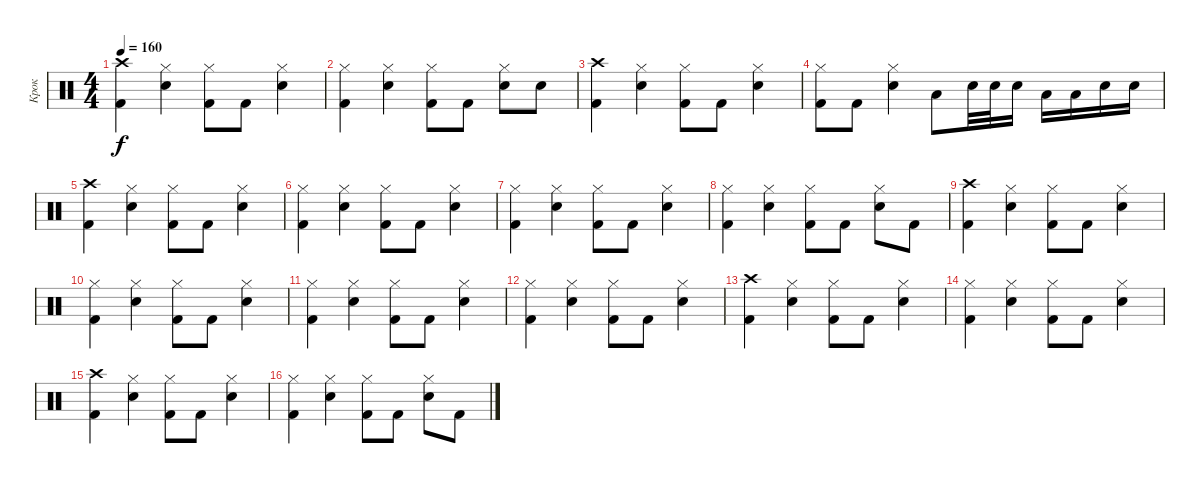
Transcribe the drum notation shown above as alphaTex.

\track ("Крок" "Крок") {instrument percussion}
\staff {score}
\articulation defaults
\ts (4 4)
\tempo 160
\clef neutral
\ks c
("Crash high (hit)" "Kick (hit) 2").4{dy f} ("Hi-Hat (closed)" "Electric Snare (hit)").4 ("Hi-Hat (closed)" "Kick (hit) 2").8 "Kick (hit) 2".8 ("Hi-Hat (closed)" "Electric Snare (hit)").4 |
("Hi-Hat (closed)" "Kick (hit) 2").4 ("Hi-Hat (closed)" "Electric Snare (hit)").4 ("Hi-Hat (closed)" "Kick (hit) 2").8 "Kick (hit) 2".8 ("Hi-Hat (closed)" "Electric Snare (hit)").8 "Electric Snare (hit)".8 |
("Crash high (hit)" "Kick (hit) 2").4 ("Hi-Hat (closed)" "Electric Snare (hit)").4 ("Hi-Hat (closed)" "Kick (hit) 2").8 "Kick (hit) 2".8 ("Hi-Hat (closed)" "Electric Snare (hit)").4 |
("Hi-Hat (closed)" "Kick (hit) 2").8 "Kick (hit) 2".8 ("Hi-Hat (closed)" "Electric Snare (hit)").4 "Low Tom (hit)".8 "Electric Snare (hit)".32 "Electric Snare (hit)".32 "Electric Snare (hit)".16 "Low Tom (hit)".16 "Low Tom (hit)".16 "Electric Snare (hit)".16 "Electric Snare (hit)".16 |
("Crash high (hit)" "Kick (hit) 2").4 ("Hi-Hat (closed)" "Electric Snare (hit)").4 ("Hi-Hat (closed)" "Kick (hit) 2").8 "Kick (hit) 2".8 ("Hi-Hat (closed)" "Electric Snare (hit)").4 |
("Hi-Hat (closed)" "Kick (hit) 2").4 ("Hi-Hat (closed)" "Electric Snare (hit)").4 ("Hi-Hat (closed)" "Kick (hit) 2").8 "Kick (hit) 2".8 ("Hi-Hat (closed)" "Electric Snare (hit)").4 |
("Hi-Hat (closed)" "Kick (hit) 2").4 ("Hi-Hat (closed)" "Electric Snare (hit)").4 ("Hi-Hat (closed)" "Kick (hit) 2").8 "Kick (hit) 2".8 ("Hi-Hat (closed)" "Electric Snare (hit)").4 |
("Hi-Hat (closed)" "Kick (hit) 2").4 ("Hi-Hat (closed)" "Electric Snare (hit)").4 ("Hi-Hat (closed)" "Kick (hit) 2").8 "Kick (hit) 2".8 ("Hi-Hat (closed)" "Electric Snare (hit)").8 "Kick (hit) 2".8 |
("Crash high (hit)" "Kick (hit) 2").4 ("Hi-Hat (closed)" "Electric Snare (hit)").4 ("Hi-Hat (closed)" "Kick (hit) 2").8 "Kick (hit) 2".8 ("Hi-Hat (closed)" "Electric Snare (hit)").4 |
("Hi-Hat (closed)" "Kick (hit) 2").4 ("Hi-Hat (closed)" "Electric Snare (hit)").4 ("Hi-Hat (closed)" "Kick (hit) 2").8 "Kick (hit) 2".8 ("Hi-Hat (closed)" "Electric Snare (hit)").4 |
("Hi-Hat (closed)" "Kick (hit) 2").4 ("Hi-Hat (closed)" "Electric Snare (hit)").4 ("Hi-Hat (closed)" "Kick (hit) 2").8 "Kick (hit) 2".8 ("Hi-Hat (closed)" "Electric Snare (hit)").4 |
("Hi-Hat (closed)" "Kick (hit) 2").4 ("Hi-Hat (closed)" "Electric Snare (hit)").4 ("Hi-Hat (closed)" "Kick (hit) 2").8 "Kick (hit) 2".8 ("Hi-Hat (closed)" "Electric Snare (hit)").4 |
("Crash high (hit)" "Kick (hit) 2").4 ("Hi-Hat (closed)" "Electric Snare (hit)").4 ("Hi-Hat (closed)" "Kick (hit) 2").8 "Kick (hit) 2".8 ("Hi-Hat (closed)" "Electric Snare (hit)").4 |
("Hi-Hat (closed)" "Kick (hit) 2").4 ("Hi-Hat (closed)" "Electric Snare (hit)").4 ("Hi-Hat (closed)" "Kick (hit) 2").8 "Kick (hit) 2".8 ("Hi-Hat (closed)" "Electric Snare (hit)").4 |
("Crash high (hit)" "Kick (hit) 2").4 ("Hi-Hat (closed)" "Electric Snare (hit)").4 ("Hi-Hat (closed)" "Kick (hit) 2").8 "Kick (hit) 2".8 ("Hi-Hat (closed)" "Electric Snare (hit)").4 |
("Hi-Hat (closed)" "Kick (hit) 2").4 ("Hi-Hat (closed)" "Electric Snare (hit)").4 ("Hi-Hat (closed)" "Kick (hit) 2").8 "Kick (hit) 2".8 ("Hi-Hat (closed)" "Electric Snare (hit)").8 "Kick (hit) 2".8
